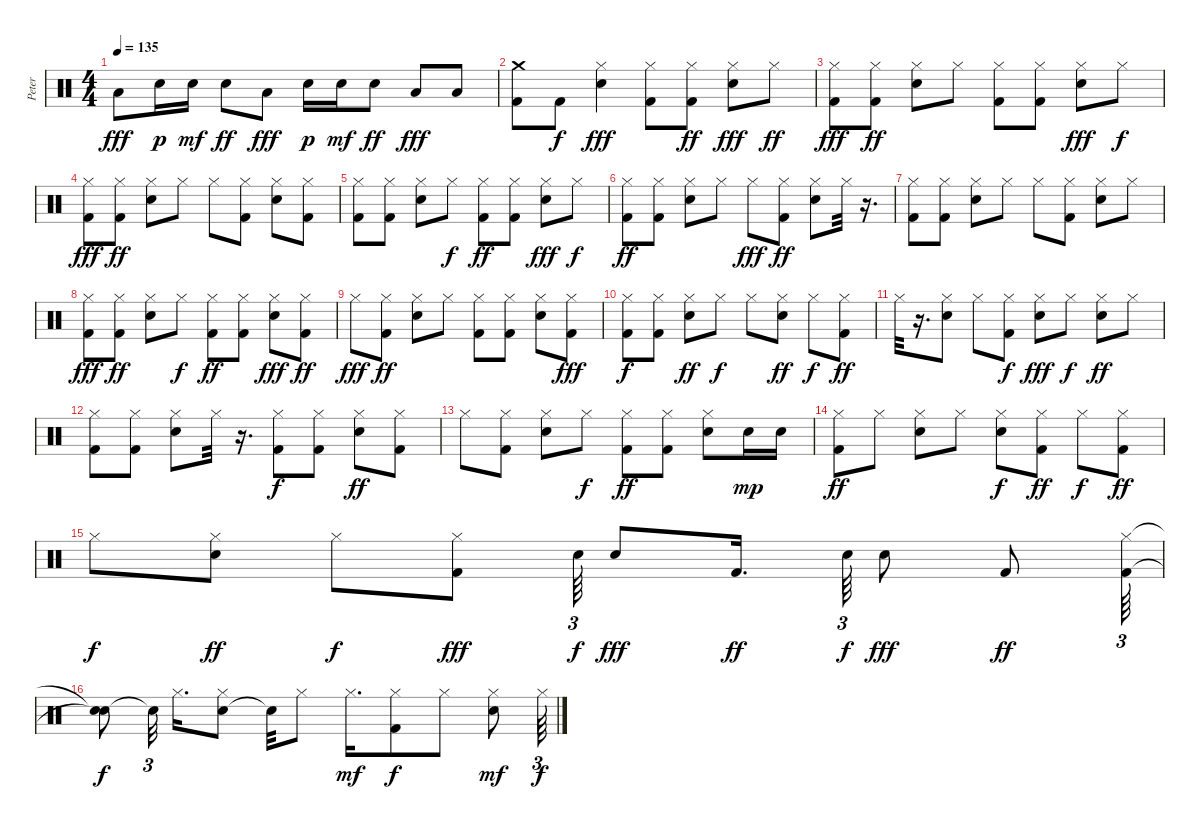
\track ("Peter" "Peter") {instrument percussion}
\staff {score}
\articulation defaults
\ts (4 4)
\tempo 135
\clef neutral
\ks c "Low Tom (hit)".8{dy fff} "Electric Snare (hit)".16{dy p} "Electric Snare (hit)".16{dy mf} "Electric Snare (hit)".8{dy ff} "Low Tom (hit)".8{dy fff} "Electric Snare (hit)".16{dy p} "Electric Snare (hit)".16{dy mf} "Electric Snare (hit)".8{dy ff} "Low Tom (hit)".8{dy fff} "Low Tom (hit)".8
|
("Kick (hit) 2" "Crash medium (hit)").8 "Kick (hit) 2".8{dy f} ("Hi-Hat (closed)" "Electric Snare (hit)").4{dy fff} ("Kick (hit) 2" "Hi-Hat (closed)").8 ("Kick (hit) 2" "Hi-Hat (closed)").8{dy ff} ("Hi-Hat (closed)" "Electric Snare (hit)").8{dy fff} "Hi-Hat (closed)".8{dy ff} |
("Kick (hit) 2" "Hi-Hat (closed)").8{dy fff} ("Kick (hit) 2" "Hi-Hat (closed)").8{dy ff} ("Hi-Hat (closed)" "Electric Snare (hit)").8 "Hi-Hat (closed)".8 ("Hi-Hat (closed)" "Kick (hit) 2").8 ("Kick (hit) 2" "Hi-Hat (closed)").8 ("Electric Snare (hit)" "Hi-Hat (closed)").8{dy fff} "Hi-Hat (closed)".8{dy f} |
("Kick (hit) 2" "Hi-Hat (closed)").8{dy fff} ("Kick (hit) 2" "Hi-Hat (closed)").8{dy ff} ("Hi-Hat (closed)" "Electric Snare (hit)").8 "Hi-Hat (closed)".8 "Hi-Hat (closed)".8 ("Kick (hit) 2" "Hi-Hat (closed)").8 ("Electric Snare (hit)" "Hi-Hat (closed)").8 ("Hi-Hat (closed)" "Kick (hit) 2").8 |
("Kick (hit) 2" "Hi-Hat (closed)").8 ("Kick (hit) 2" "Hi-Hat (closed)").8 ("Hi-Hat (closed)" "Electric Snare (hit)").8 "Hi-Hat (closed)".8{dy f} ("Kick (hit) 2" "Hi-Hat (closed)").8{dy ff} ("Hi-Hat (closed)" "Kick (hit) 2").8 ("Electric Snare (hit)" "Hi-Hat (closed)").8{dy fff} "Hi-Hat (closed)".8{dy f} |
("Hi-Hat (closed)" "Kick (hit) 2").8{dy ff} ("Kick (hit) 2" "Hi-Hat (closed)").8 ("Hi-Hat (closed)" "Electric Snare (hit)").8 "Hi-Hat (closed)".8 "Hi-Hat (closed)".8{dy fff} ("Hi-Hat (closed)" "Kick (hit) 2").8{dy ff} ("Electric Snare (hit)" "Hi-Hat (closed)").8 "Hi-Hat (closed)".32 r.16{d} |
("Hi-Hat (closed)" "Kick (hit) 2").8 ("Kick (hit) 2" "Hi-Hat (closed)").8 ("Hi-Hat (closed)" "Electric Snare (hit)").8 "Hi-Hat (closed)".8 "Hi-Hat (closed)".8 ("Hi-Hat (closed)" "Kick (hit) 2").8 ("Electric Snare (hit)" "Hi-Hat (closed)").8 "Hi-Hat (closed)".8 |
("Hi-Hat (closed)" "Kick (hit) 2").8{dy fff} ("Hi-Hat (closed)" "Kick (hit) 2").8{dy ff} ("Hi-Hat (closed)" "Electric Snare (hit)").8 "Hi-Hat (closed)".8{dy f} ("Kick (hit) 2" "Hi-Hat (closed)").8{dy ff} ("Hi-Hat (closed)" "Kick (hit) 2").8 ("Electric Snare (hit)" "Hi-Hat (closed)").8{dy fff} ("Kick (hit) 2" "Hi-Hat (closed)").8{dy ff} |
"Hi-Hat (closed)".8{dy fff} ("Hi-Hat (closed)" "Kick (hit) 2").8{dy ff} ("Hi-Hat (closed)" "Electric Snare (hit)").8 "Hi-Hat (closed)".8 ("Hi-Hat (closed)" "Kick (hit) 2").8 ("Kick (hit) 2" "Hi-Hat (closed)").8 ("Electric Snare (hit)" "Hi-Hat (closed)").8 ("Kick (hit) 2" "Hi-Hat (closed)").8{dy fff} |
("Kick (hit) 2" "Hi-Hat (closed)").8{dy f} ("Hi-Hat (closed)" "Kick (hit) 2").8 ("Hi-Hat (closed)" "Electric Snare (hit)").8{dy ff} "Hi-Hat (closed)".8{dy f} "Hi-Hat (closed)".8 ("Hi-Hat (closed)" "Electric Snare (hit)").8{dy ff} "Hi-Hat (closed)".8{dy f} ("Kick (hit) 2" "Hi-Hat (closed)").8{dy ff} |
"Hi-Hat (closed)".32 r.16{d} ("Hi-Hat (closed)" "Electric Snare (hit)").8 "Hi-Hat (closed)".8 ("Hi-Hat (closed)" "Kick (hit) 2").8{dy f} ("Electric Snare (hit)" "Hi-Hat (closed)").8{dy fff} "Hi-Hat (closed)".8{dy f} ("Electric Snare (hit)" "Hi-Hat (closed)").8{dy ff} "Hi-Hat (closed)".8 |
("Kick (hit) 2" "Hi-Hat (closed)").8 ("Hi-Hat (closed)" "Kick (hit) 2").8 ("Electric Snare (hit)" "Hi-Hat (closed)").8 "Hi-Hat (closed)".32 r.16{d} ("Hi-Hat (closed)" "Kick (hit) 2").8{dy f} ("Kick (hit) 2" "Hi-Hat (closed)").8 ("Electric Snare (hit)" "Hi-Hat (closed)").8{dy ff} ("Kick (hit) 2" "Hi-Hat (closed)").8 |
"Hi-Hat (closed)".8 ("Kick (hit) 2" "Hi-Hat (closed)").8 ("Electric Snare (hit)" "Hi-Hat (closed)").8 "Hi-Hat (closed)".8{dy f} ("Kick (hit) 2" "Hi-Hat (closed)").8{dy ff} ("Hi-Hat (closed)" "Kick (hit) 2").8 ("Hi-Hat (closed)" "Electric Snare (hit)").8 "Electric Snare (hit)".16{dy mp} "Electric Snare (hit)".16 |
("Hi-Hat (closed)" "Kick (hit) 2").8{dy ff} "Hi-Hat (closed)".8 ("Hi-Hat (closed)" "Electric Snare (hit)").8 "Hi-Hat (closed)".8 ("Hi-Hat (closed)" "Electric Snare (hit)").8{dy f} ("Kick (hit) 2" "Hi-Hat (closed)").8{dy ff} "Hi-Hat (closed)".8{dy f} ("Kick (hit) 2" "Hi-Hat (closed)").8{dy ff} |
"Hi-Hat (closed)".8{dy f} ("Electric Snare (hit)" "Hi-Hat (closed)").8{dy ff} "Hi-Hat (closed)".8{dy f} ("Kick (hit) 2" "Hi-Hat (closed)").8{dy fff} "Electric Snare (hit)".64{tu (3 2) dy f} "Electric Snare (hit)".8{dy fff} "Kick (hit) 2".16{d dy ff} "Electric Snare (hit)".64{tu (3 2) dy f} "Electric Snare (hit)".8{dy fff} "Kick (hit) 2".8{dy ff} ("Hi-Hat (closed)" "Kick (hit) 2").64{tu (3 2)} |
("Snare (hit)"{t} "Snare (hit)"{t}).8{dy f} "Snare (hit)"{t}.32{tu (3 2)} "Hi-Hat (closed)".16{d} ("Electric Snare (hit)" "Hi-Hat (closed)").8 "Snare (hit)"{t}.32 "Hi-Hat (closed)".8 "Hi-Hat (closed)".16{d dy mf} ("Hi-Hat (closed)" "Kick (hit) 2").8{dy f} "Hi-Hat (closed)".8 ("Electric Snare (hit)" "Hi-Hat (closed)").8{dy mf} "Hi-Hat (closed)".64{tu (3 2) dy f}
